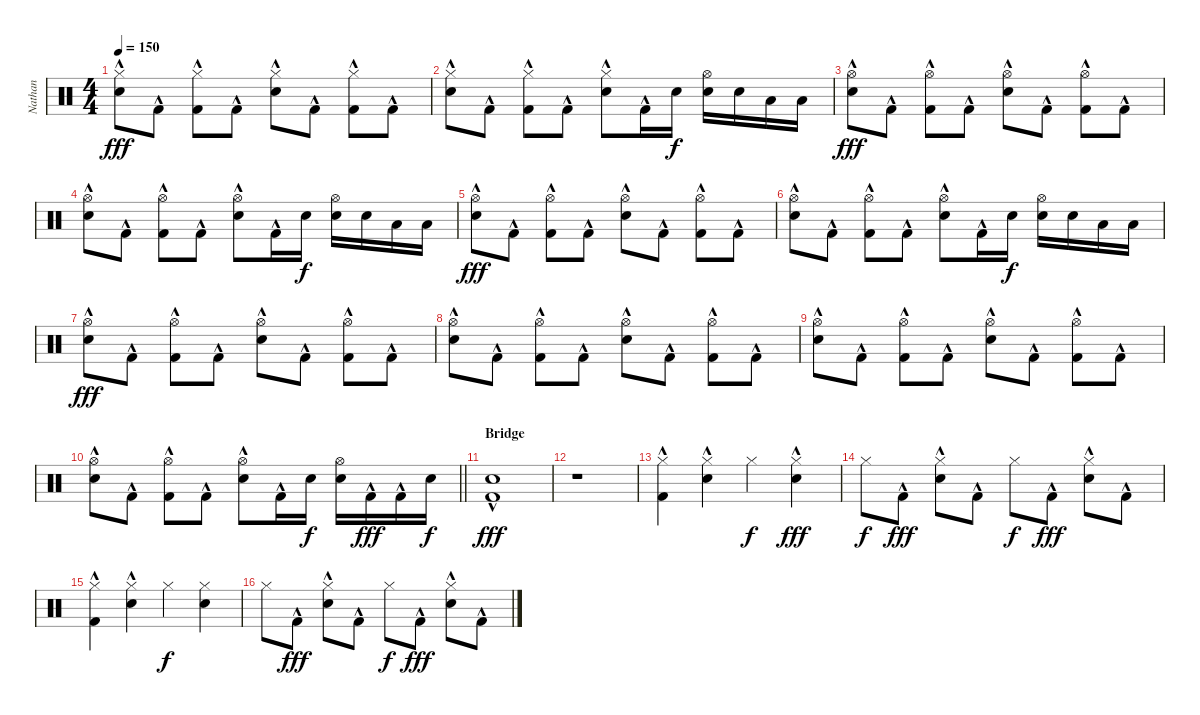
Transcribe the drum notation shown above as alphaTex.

\track ("Nathan" "Nathan") {instrument percussion}
\staff {score}
\articulation defaults
\ts (4 4)
\tempo 150
\clef neutral
\ks c
("Hi-Hat (closed)" "Snare (hit) 2"{hac}).8{dy fff} "Kick (hit) 2"{hac}.8 ("Hi-Hat (closed)" "Kick (hit) 2"{hac}).8 "Kick (hit) 2"{hac}.8 ("Hi-Hat (closed)" "Snare (hit) 2"{hac}).8 "Kick (hit) 2"{hac}.8 ("Hi-Hat (closed)" "Kick (hit) 2"{hac}).8 "Kick (hit) 2"{hac}.8 |
("Hi-Hat (closed)" "Snare (hit) 2"{hac}).8 "Kick (hit) 2"{hac}.8 ("Hi-Hat (closed)" "Kick (hit) 2"{hac}).8 "Kick (hit) 2"{hac}.8 ("Hi-Hat (closed)" "Snare (hit) 2"{hac}).8 "Kick (hit) 2"{hac}.16 "Snare (hit) 2".16{dy f} ("Hi-Hat (open)" "Snare (hit) 2").16 "Snare (hit) 2".16 "Low Tom (hit)".16 "Low Tom (hit)".16 |
("Hi-Hat (open)" "Snare (hit) 2"{hac}).8{dy fff} "Kick (hit) 2"{hac}.8 ("Hi-Hat (open)" "Kick (hit) 2"{hac}).8 "Kick (hit) 2"{hac}.8 ("Hi-Hat (open)" "Snare (hit) 2"{hac}).8 "Kick (hit) 2"{hac}.8 ("Hi-Hat (open)" "Kick (hit) 2"{hac}).8 "Kick (hit) 2"{hac}.8 |
("Hi-Hat (open)" "Snare (hit) 2"{hac}).8 "Kick (hit) 2"{hac}.8 ("Hi-Hat (open)" "Kick (hit) 2"{hac}).8 "Kick (hit) 2"{hac}.8 ("Hi-Hat (open)" "Snare (hit) 2"{hac}).8 "Kick (hit) 2"{hac}.16 "Snare (hit) 2".16{dy f} ("Hi-Hat (open)" "Snare (hit) 2").16 "Snare (hit) 2".16 "Low Tom (hit)".16 "Low Tom (hit)".16 |
("Hi-Hat (open)" "Snare (hit) 2"{hac}).8{dy fff} "Kick (hit) 2"{hac}.8 ("Hi-Hat (open)" "Kick (hit) 2"{hac}).8 "Kick (hit) 2"{hac}.8 ("Hi-Hat (open)" "Snare (hit) 2"{hac}).8 "Kick (hit) 2"{hac}.8 ("Hi-Hat (open)" "Kick (hit) 2"{hac}).8 "Kick (hit) 2"{hac}.8 |
("Hi-Hat (open)" "Snare (hit) 2"{hac}).8 "Kick (hit) 2"{hac}.8 ("Hi-Hat (open)" "Kick (hit) 2"{hac}).8 "Kick (hit) 2"{hac}.8 ("Hi-Hat (open)" "Snare (hit) 2"{hac}).8 "Kick (hit) 2"{hac}.16 "Snare (hit) 2".16{dy f} ("Hi-Hat (open)" "Snare (hit) 2").16 "Snare (hit) 2".16 "Low Tom (hit)".16 "Low Tom (hit)".16 |
("Hi-Hat (open)" "Snare (hit) 2"{hac}).8{dy fff} "Kick (hit) 2"{hac}.8 ("Hi-Hat (open)" "Kick (hit) 2"{hac}).8 "Kick (hit) 2"{hac}.8 ("Hi-Hat (open)" "Snare (hit) 2"{hac}).8 "Kick (hit) 2"{hac}.8 ("Hi-Hat (open)" "Kick (hit) 2"{hac}).8 "Kick (hit) 2"{hac}.8 |
("Hi-Hat (open)" "Snare (hit) 2"{hac}).8 "Kick (hit) 2"{hac}.8 ("Hi-Hat (open)" "Kick (hit) 2"{hac}).8 "Kick (hit) 2"{hac}.8 ("Hi-Hat (open)" "Snare (hit) 2"{hac}).8 "Kick (hit) 2"{hac}.8 ("Hi-Hat (open)" "Kick (hit) 2"{hac}).8 "Kick (hit) 2"{hac}.8 |
("Hi-Hat (open)" "Snare (hit) 2"{hac}).8 "Kick (hit) 2"{hac}.8 ("Hi-Hat (open)" "Kick (hit) 2"{hac}).8 "Kick (hit) 2"{hac}.8 ("Hi-Hat (open)" "Snare (hit) 2"{hac}).8 "Kick (hit) 2"{hac}.8 ("Hi-Hat (open)" "Kick (hit) 2"{hac}).8 "Kick (hit) 2"{hac}.8 |
\barLineRight lightlight
("Hi-Hat (open)" "Snare (hit) 2"{hac}).8 "Kick (hit) 2"{hac}.8 ("Hi-Hat (open)" "Kick (hit) 2"{hac}).8 "Kick (hit) 2"{hac}.8 ("Hi-Hat (open)" "Snare (hit) 2"{hac}).8 "Kick (hit) 2"{hac}.16 "Snare (hit) 2".16{dy f} ("Hi-Hat (open)" "Snare (hit) 2").16 "Kick (hit) 2"{hac}.16{dy fff} "Kick (hit) 2"{hac}.16 "Snare (hit) 2".16{dy f} |
\section ("" "Bridge")
("Snare (hit) 2"{hac} "Kick (hit) 2"{hac}).1{dy fff} |
r.1 |
("Hi-Hat (closed)" "Kick (hit) 2"{hac}).4 ("Hi-Hat (closed)" "Snare (hit) 2"{hac}).4 "Hi-Hat (closed)".4{dy f} ("Hi-Hat (closed)" "Snare (hit) 2"{hac}).4{dy fff} |
"Hi-Hat (closed)".8{dy f} "Kick (hit) 2"{hac}.8{dy fff} ("Hi-Hat (closed)" "Snare (hit) 2"{hac}).8 "Kick (hit) 2"{hac}.8 "Hi-Hat (closed)".8{dy f} "Kick (hit) 2"{hac}.8{dy fff} ("Hi-Hat (closed)" "Snare (hit) 2"{hac}).8 "Kick (hit) 2"{hac}.8 |
("Hi-Hat (closed)" "Kick (hit) 2"{hac}).4 ("Hi-Hat (closed)" "Snare (hit) 2"{hac}).4 "Hi-Hat (closed)".4{dy f} ("Hi-Hat (closed)" "Snare (hit) 2").4 |
"Hi-Hat (closed)".8 "Kick (hit) 2"{hac}.8{dy fff} ("Hi-Hat (closed)" "Snare (hit) 2"{hac}).8 "Kick (hit) 2"{hac}.8 "Hi-Hat (closed)".8{dy f} "Kick (hit) 2"{hac}.8{dy fff} ("Hi-Hat (closed)" "Snare (hit) 2"{hac}).8 "Kick (hit) 2"{hac}.8
